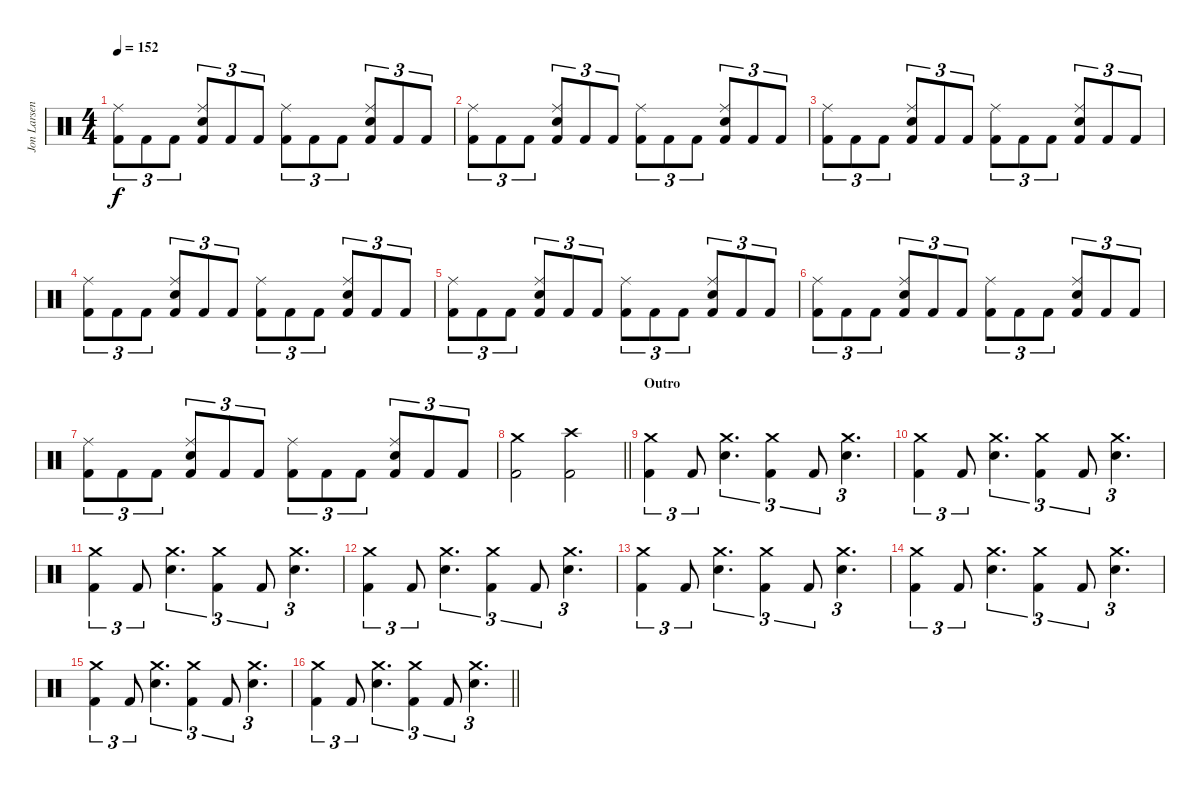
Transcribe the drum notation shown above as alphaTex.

\track ("Jon Larsen" "Jon Larsen") {instrument percussion}
\staff {score}
\articulation defaults
\ts (4 4)
\tempo 152
\clef neutral
\ks c
("Kick (hit) 2" "Ride (middle)").8{tu (3 2) dy f} "Kick (hit) 2".8{tu (3 2)} "Kick (hit) 2".8{tu (3 2)} ("Kick (hit) 2" "Electric Snare (hit)" "Ride (middle)").8{tu (3 2)} "Kick (hit) 2".8{tu (3 2)} "Kick (hit) 2".8{tu (3 2)} ("Kick (hit) 2" "Ride (middle)").8{tu (3 2)} "Kick (hit) 2".8{tu (3 2)} "Kick (hit) 2".8{tu (3 2)} ("Kick (hit) 2" "Electric Snare (hit)" "Ride (middle)").8{tu (3 2)} "Kick (hit) 2".8{tu (3 2)} "Kick (hit) 2".8{tu (3 2)} |
("Kick (hit) 2" "Ride (middle)").8{tu (3 2)} "Kick (hit) 2".8{tu (3 2)} "Kick (hit) 2".8{tu (3 2)} ("Kick (hit) 2" "Electric Snare (hit)" "Ride (middle)").8{tu (3 2)} "Kick (hit) 2".8{tu (3 2)} "Kick (hit) 2".8{tu (3 2)} ("Kick (hit) 2" "Ride (middle)").8{tu (3 2)} "Kick (hit) 2".8{tu (3 2)} "Kick (hit) 2".8{tu (3 2)} ("Kick (hit) 2" "Electric Snare (hit)" "Ride (middle)").8{tu (3 2)} "Kick (hit) 2".8{tu (3 2)} "Kick (hit) 2".8{tu (3 2)} |
("Kick (hit) 2" "Ride (middle)").8{tu (3 2)} "Kick (hit) 2".8{tu (3 2)} "Kick (hit) 2".8{tu (3 2)} ("Kick (hit) 2" "Electric Snare (hit)" "Ride (middle)").8{tu (3 2)} "Kick (hit) 2".8{tu (3 2)} "Kick (hit) 2".8{tu (3 2)} ("Kick (hit) 2" "Ride (middle)").8{tu (3 2)} "Kick (hit) 2".8{tu (3 2)} "Kick (hit) 2".8{tu (3 2)} ("Kick (hit) 2" "Electric Snare (hit)" "Ride (middle)").8{tu (3 2)} "Kick (hit) 2".8{tu (3 2)} "Kick (hit) 2".8{tu (3 2)} |
("Kick (hit) 2" "Ride (middle)").8{tu (3 2)} "Kick (hit) 2".8{tu (3 2)} "Kick (hit) 2".8{tu (3 2)} ("Kick (hit) 2" "Electric Snare (hit)" "Ride (middle)").8{tu (3 2)} "Kick (hit) 2".8{tu (3 2)} "Kick (hit) 2".8{tu (3 2)} ("Kick (hit) 2" "Ride (middle)").8{tu (3 2)} "Kick (hit) 2".8{tu (3 2)} "Kick (hit) 2".8{tu (3 2)} ("Kick (hit) 2" "Electric Snare (hit)" "Ride (middle)").8{tu (3 2)} "Kick (hit) 2".8{tu (3 2)} "Kick (hit) 2".8{tu (3 2)} |
("Kick (hit) 2" "Ride (middle)").8{tu (3 2)} "Kick (hit) 2".8{tu (3 2)} "Kick (hit) 2".8{tu (3 2)} ("Kick (hit) 2" "Electric Snare (hit)" "Ride (middle)").8{tu (3 2)} "Kick (hit) 2".8{tu (3 2)} "Kick (hit) 2".8{tu (3 2)} ("Kick (hit) 2" "Ride (middle)").8{tu (3 2)} "Kick (hit) 2".8{tu (3 2)} "Kick (hit) 2".8{tu (3 2)} ("Kick (hit) 2" "Electric Snare (hit)" "Ride (middle)").8{tu (3 2)} "Kick (hit) 2".8{tu (3 2)} "Kick (hit) 2".8{tu (3 2)} |
("Kick (hit) 2" "Ride (middle)").8{tu (3 2)} "Kick (hit) 2".8{tu (3 2)} "Kick (hit) 2".8{tu (3 2)} ("Kick (hit) 2" "Electric Snare (hit)" "Ride (middle)").8{tu (3 2)} "Kick (hit) 2".8{tu (3 2)} "Kick (hit) 2".8{tu (3 2)} ("Kick (hit) 2" "Ride (middle)").8{tu (3 2)} "Kick (hit) 2".8{tu (3 2)} "Kick (hit) 2".8{tu (3 2)} ("Kick (hit) 2" "Electric Snare (hit)" "Ride (middle)").8{tu (3 2)} "Kick (hit) 2".8{tu (3 2)} "Kick (hit) 2".8{tu (3 2)} |
("Kick (hit) 2" "Ride (middle)").8{tu (3 2)} "Kick (hit) 2".8{tu (3 2)} "Kick (hit) 2".8{tu (3 2)} ("Kick (hit) 2" "Electric Snare (hit)" "Ride (middle)").8{tu (3 2)} "Kick (hit) 2".8{tu (3 2)} "Kick (hit) 2".8{tu (3 2)} ("Kick (hit) 2" "Ride (middle)").8{tu (3 2)} "Kick (hit) 2".8{tu (3 2)} "Kick (hit) 2".8{tu (3 2)} ("Kick (hit) 2" "Electric Snare (hit)" "Ride (middle)").8{tu (3 2)} "Kick (hit) 2".8{tu (3 2)} "Kick (hit) 2".8{tu (3 2)} |
\barLineRight lightlight
("Crash medium (hit)" "Kick (hit) 2").2 ("Crash high (hit)" "Kick (hit) 2").2 |
\section ("" "Outro")
("Kick (hit) 2" "Crash medium (hit)").4{tu (3 2)} "Kick (hit) 2".8{tu (3 2)} ("Electric Snare (hit)" "Crash medium (hit)").4{d tu (3 2)} ("Kick (hit) 2" "Crash medium (hit)").4{tu (3 2)} "Kick (hit) 2".8{tu (3 2)} ("Electric Snare (hit)" "Crash medium (hit)").4{d tu (3 2)} |
("Kick (hit) 2" "Crash medium (hit)").4{tu (3 2)} "Kick (hit) 2".8{tu (3 2)} ("Electric Snare (hit)" "Crash medium (hit)").4{d tu (3 2)} ("Kick (hit) 2" "Crash medium (hit)").4{tu (3 2)} "Kick (hit) 2".8{tu (3 2)} ("Electric Snare (hit)" "Crash medium (hit)").4{d tu (3 2)} |
("Kick (hit) 2" "Crash medium (hit)").4{tu (3 2)} "Kick (hit) 2".8{tu (3 2)} ("Electric Snare (hit)" "Crash medium (hit)").4{d tu (3 2)} ("Kick (hit) 2" "Crash medium (hit)").4{tu (3 2)} "Kick (hit) 2".8{tu (3 2)} ("Electric Snare (hit)" "Crash medium (hit)").4{d tu (3 2)} |
("Kick (hit) 2" "Crash medium (hit)").4{tu (3 2)} "Kick (hit) 2".8{tu (3 2)} ("Electric Snare (hit)" "Crash medium (hit)").4{d tu (3 2)} ("Kick (hit) 2" "Crash medium (hit)").4{tu (3 2)} "Kick (hit) 2".8{tu (3 2)} ("Electric Snare (hit)" "Crash medium (hit)").4{d tu (3 2)} |
("Kick (hit) 2" "Crash medium (hit)").4{tu (3 2)} "Kick (hit) 2".8{tu (3 2)} ("Electric Snare (hit)" "Crash medium (hit)").4{d tu (3 2)} ("Kick (hit) 2" "Crash medium (hit)").4{tu (3 2)} "Kick (hit) 2".8{tu (3 2)} ("Electric Snare (hit)" "Crash medium (hit)").4{d tu (3 2)} |
("Kick (hit) 2" "Crash medium (hit)").4{tu (3 2)} "Kick (hit) 2".8{tu (3 2)} ("Electric Snare (hit)" "Crash medium (hit)").4{d tu (3 2)} ("Kick (hit) 2" "Crash medium (hit)").4{tu (3 2)} "Kick (hit) 2".8{tu (3 2)} ("Electric Snare (hit)" "Crash medium (hit)").4{d tu (3 2)} |
("Kick (hit) 2" "Crash medium (hit)").4{tu (3 2)} "Kick (hit) 2".8{tu (3 2)} ("Electric Snare (hit)" "Crash medium (hit)").4{d tu (3 2)} ("Kick (hit) 2" "Crash medium (hit)").4{tu (3 2)} "Kick (hit) 2".8{tu (3 2)} ("Electric Snare (hit)" "Crash medium (hit)").4{d tu (3 2)} |
\barLineRight lightlight
("Kick (hit) 2" "Crash medium (hit)").4{tu (3 2)} "Kick (hit) 2".8{tu (3 2)} ("Electric Snare (hit)" "Crash medium (hit)").4{d tu (3 2)} ("Kick (hit) 2" "Crash medium (hit)").4{tu (3 2)} "Kick (hit) 2".8{tu (3 2)} ("Electric Snare (hit)" "Crash medium (hit)").4{d tu (3 2)}
